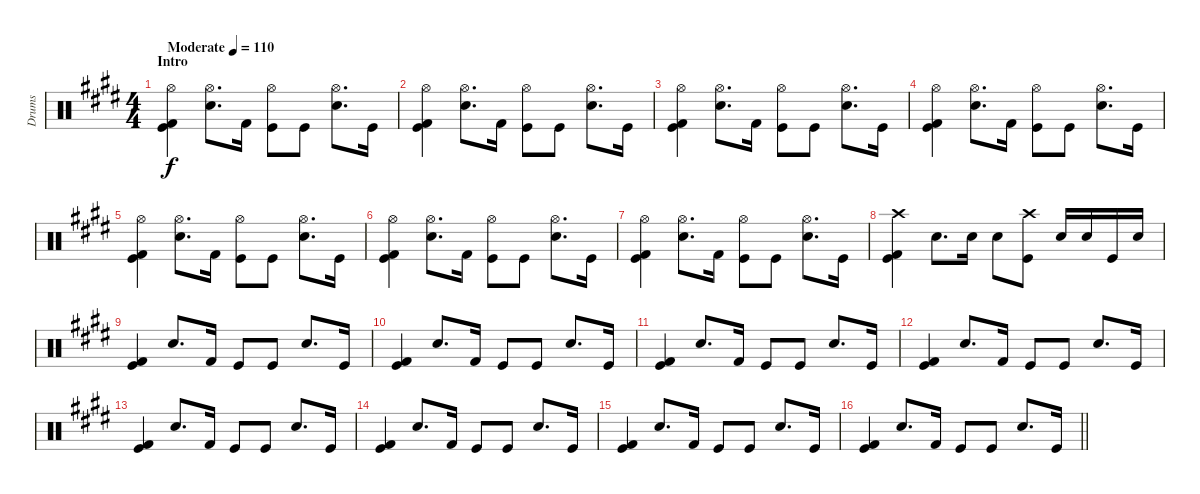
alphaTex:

\track ("Drums" "Drums") {instrument percussion}
\staff {score}
\articulation defaults
\ts (4 4)
\section ("" "Intro")
\tempo (110 "Moderate")
\clef neutral
\ks e
("Kick (hit) 2" "Kick (hit)" "Hi-Hat (open)").4{dy f} ("Snare (hit) 2" "Hi-Hat (open)").8{d} "Kick (hit) 2".16 ("Kick (hit)" "Hi-Hat (open)").8 "Kick (hit)".8 ("Snare (hit) 2" "Hi-Hat (open)").8{d} "Kick (hit)".16 |
("Kick (hit) 2" "Kick (hit)" "Hi-Hat (open)").4 ("Snare (hit) 2" "Hi-Hat (open)").8{d} "Kick (hit) 2".16 ("Kick (hit)" "Hi-Hat (open)").8 "Kick (hit)".8 ("Snare (hit) 2" "Hi-Hat (open)").8{d} "Kick (hit)".16 |
("Kick (hit) 2" "Kick (hit)" "Hi-Hat (open)").4 ("Snare (hit) 2" "Hi-Hat (open)").8{d} "Kick (hit) 2".16 ("Kick (hit)" "Hi-Hat (open)").8 "Kick (hit)".8 ("Snare (hit) 2" "Hi-Hat (open)").8{d} "Kick (hit)".16 |
("Kick (hit) 2" "Kick (hit)" "Hi-Hat (open)").4 ("Snare (hit) 2" "Hi-Hat (open)").8{d} "Kick (hit) 2".16 ("Kick (hit)" "Hi-Hat (open)").8 "Kick (hit)".8 ("Snare (hit) 2" "Hi-Hat (open)").8{d} "Kick (hit)".16 |
("Kick (hit) 2" "Kick (hit)" "Hi-Hat (open)").4 ("Snare (hit) 2" "Hi-Hat (open)").8{d} "Kick (hit) 2".16 ("Kick (hit)" "Hi-Hat (open)").8 "Kick (hit)".8 ("Snare (hit) 2" "Hi-Hat (open)").8{d} "Kick (hit)".16 |
("Kick (hit) 2" "Kick (hit)" "Hi-Hat (open)").4 ("Snare (hit) 2" "Hi-Hat (open)").8{d} "Kick (hit) 2".16 ("Kick (hit)" "Hi-Hat (open)").8 "Kick (hit)".8 ("Snare (hit) 2" "Hi-Hat (open)").8{d} "Kick (hit)".16 |
("Kick (hit) 2" "Kick (hit)" "Hi-Hat (open)").4 ("Snare (hit) 2" "Hi-Hat (open)").8{d} "Kick (hit) 2".16 ("Kick (hit)" "Hi-Hat (open)").8 "Kick (hit)".8 ("Snare (hit) 2" "Hi-Hat (open)").8{d} "Kick (hit)".16 |
("Kick (hit) 2" "Kick (hit)" "Crash high (hit)").4 "Snare (hit) 2".8{d} "Snare (hit) 2".16 "Snare (hit) 2".8 ("Kick (hit)" "Crash high (hit)").8 "Snare (hit) 2".16 "Snare (hit) 2".16 "Kick (hit)".16 "Snare (hit) 2".16 |
("Kick (hit) 2" "Kick (hit)").4 "Snare (hit) 2".8{d} "Kick (hit) 2".16 "Kick (hit)".8 "Kick (hit)".8 "Snare (hit) 2".8{d} "Kick (hit)".16 |
("Kick (hit) 2" "Kick (hit)").4 "Snare (hit) 2".8{d} "Kick (hit) 2".16 "Kick (hit)".8 "Kick (hit)".8 "Snare (hit) 2".8{d} "Kick (hit)".16 |
("Kick (hit) 2" "Kick (hit)").4 "Snare (hit) 2".8{d} "Kick (hit) 2".16 "Kick (hit)".8 "Kick (hit)".8 "Snare (hit) 2".8{d} "Kick (hit)".16 |
("Kick (hit) 2" "Kick (hit)").4 "Snare (hit) 2".8{d} "Kick (hit) 2".16 "Kick (hit)".8 "Kick (hit)".8 "Snare (hit) 2".8{d} "Kick (hit)".16 |
("Kick (hit) 2" "Kick (hit)").4 "Snare (hit) 2".8{d} "Kick (hit) 2".16 "Kick (hit)".8 "Kick (hit)".8 "Snare (hit) 2".8{d} "Kick (hit)".16 |
("Kick (hit) 2" "Kick (hit)").4 "Snare (hit) 2".8{d} "Kick (hit) 2".16 "Kick (hit)".8 "Kick (hit)".8 "Snare (hit) 2".8{d} "Kick (hit)".16 |
("Kick (hit) 2" "Kick (hit)").4 "Snare (hit) 2".8{d} "Kick (hit) 2".16 "Kick (hit)".8 "Kick (hit)".8 "Snare (hit) 2".8{d} "Kick (hit)".16 |
\barLineRight lightlight
("Kick (hit) 2" "Kick (hit)").4 "Snare (hit) 2".8{d} "Kick (hit) 2".16 "Kick (hit)".8 "Kick (hit)".8 "Snare (hit) 2".8{d} "Kick (hit)".16
